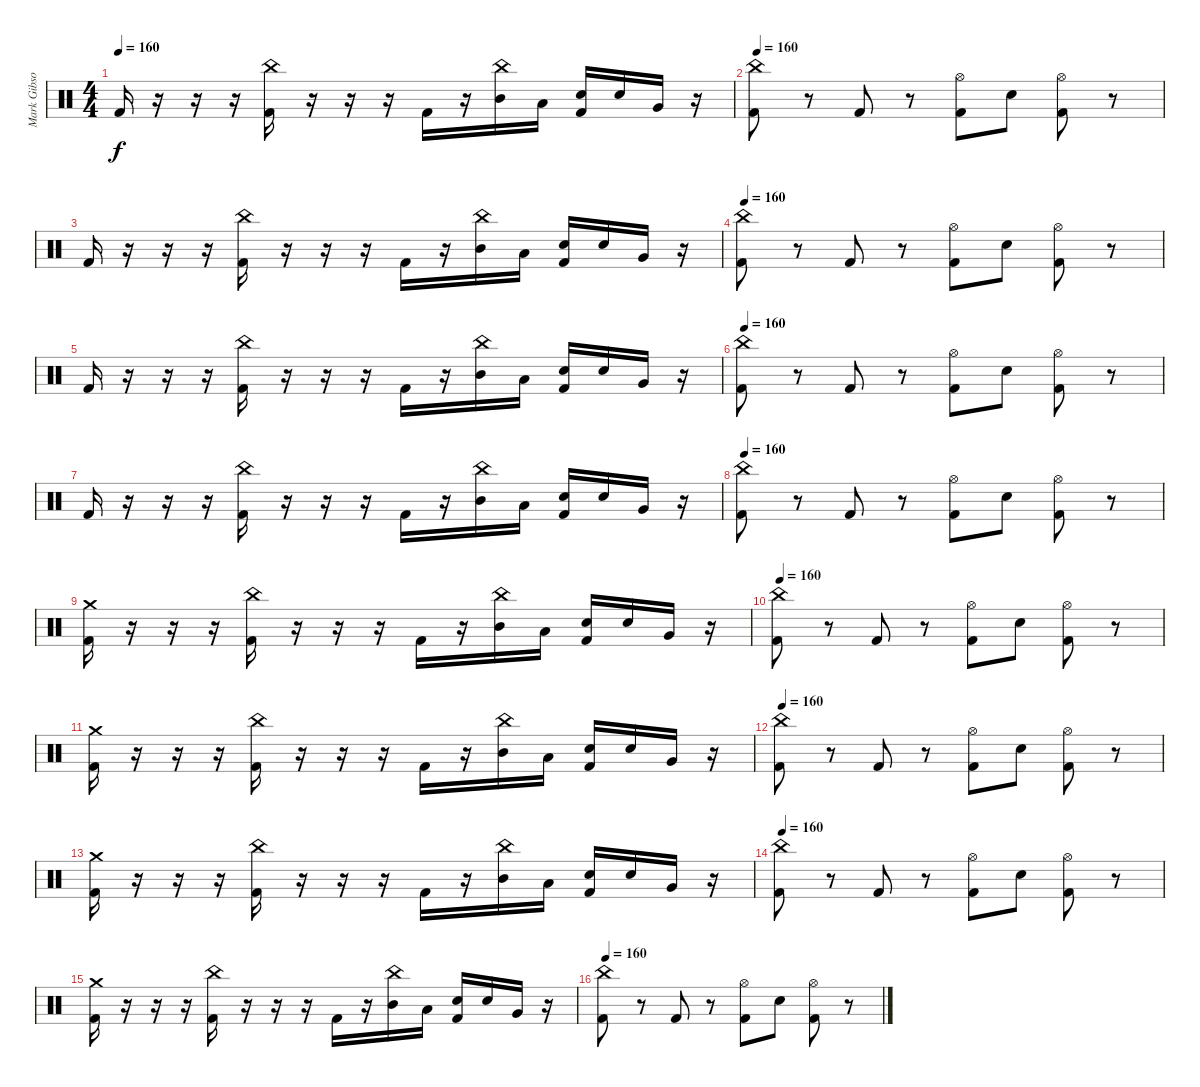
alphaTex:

\track ("Mark Gibson" "Mark Gibso") {instrument percussion}
\staff {score}
\articulation defaults
\ts (4 4)
\tempo 160
\clef neutral
\ks c "Kick (hit) 2".16{dy f}
r.16 r.16 r.16 ("China (hit)" "Kick (hit) 2").16 r.16 r.16 r.16 "Kick (hit) 2".16 r.16 ("China (hit)" "Mid Tom (hit)").16 "Low Tom (hit)".16 ("Electric Snare (hit)" "Kick (hit) 2").16 "Electric Snare (hit)".16 "Very Low Tom (hit)".16 r.16 |
\tempo 160
("China (hit)" "Kick (hit) 2").8 r.8 "Kick (hit) 2".8 r.8 ("Hi-Hat (open)" "Kick (hit) 2").8 "Electric Snare (hit)".8 ("Hi-Hat (open)" "Kick (hit) 2").8 r.8 |
"Kick (hit) 2".16 r.16 r.16 r.16 ("China (hit)" "Kick (hit) 2").16 r.16 r.16 r.16 "Kick (hit) 2".16 r.16 ("China (hit)" "Mid Tom (hit)").16 "Low Tom (hit)".16 ("Electric Snare (hit)" "Kick (hit) 2").16 "Electric Snare (hit)".16 "Very Low Tom (hit)".16 r.16 |
\tempo 160
("China (hit)" "Kick (hit) 2").8 r.8 "Kick (hit) 2".8 r.8 ("Hi-Hat (open)" "Kick (hit) 2").8 "Electric Snare (hit)".8 ("Hi-Hat (open)" "Kick (hit) 2").8 r.8 |
"Kick (hit) 2".16 r.16 r.16 r.16 ("China (hit)" "Kick (hit) 2").16 r.16 r.16 r.16 "Kick (hit) 2".16 r.16 ("China (hit)" "Mid Tom (hit)").16 "Low Tom (hit)".16 ("Electric Snare (hit)" "Kick (hit) 2").16 "Electric Snare (hit)".16 "Very Low Tom (hit)".16 r.16 |
\tempo 160
("China (hit)" "Kick (hit) 2").8 r.8 "Kick (hit) 2".8 r.8 ("Hi-Hat (open)" "Kick (hit) 2").8 "Electric Snare (hit)".8 ("Hi-Hat (open)" "Kick (hit) 2").8 r.8 |
"Kick (hit) 2".16 r.16 r.16 r.16 ("China (hit)" "Kick (hit) 2").16 r.16 r.16 r.16 "Kick (hit) 2".16 r.16 ("China (hit)" "Mid Tom (hit)").16 "Low Tom (hit)".16 ("Electric Snare (hit)" "Kick (hit) 2").16 "Electric Snare (hit)".16 "Very Low Tom (hit)".16 r.16 |
\tempo 160
("China (hit)" "Kick (hit) 2").8 r.8 "Kick (hit) 2".8 r.8 ("Hi-Hat (open)" "Kick (hit) 2").8 "Electric Snare (hit)".8 ("Hi-Hat (open)" "Kick (hit) 2").8 r.8 |
("Crash medium (hit)" "Kick (hit) 2").16 r.16 r.16 r.16 ("China (hit)" "Kick (hit) 2").16 r.16 r.16 r.16 "Kick (hit) 2".16 r.16 ("China (hit)" "Mid Tom (hit)").16 "Low Tom (hit)".16 ("Electric Snare (hit)" "Kick (hit) 2").16 "Electric Snare (hit)".16 "Very Low Tom (hit)".16 r.16 |
\tempo 160
("China (hit)" "Kick (hit) 2").8 r.8 "Kick (hit) 2".8 r.8 ("Hi-Hat (open)" "Kick (hit) 2").8 "Electric Snare (hit)".8 ("Hi-Hat (open)" "Kick (hit) 2").8 r.8 |
("Crash medium (hit)" "Kick (hit) 2").16 r.16 r.16 r.16 ("China (hit)" "Kick (hit) 2").16 r.16 r.16 r.16 "Kick (hit) 2".16 r.16 ("China (hit)" "Mid Tom (hit)").16 "Low Tom (hit)".16 ("Electric Snare (hit)" "Kick (hit) 2").16 "Electric Snare (hit)".16 "Very Low Tom (hit)".16 r.16 |
\tempo 160
("China (hit)" "Kick (hit) 2").8 r.8 "Kick (hit) 2".8 r.8 ("Hi-Hat (open)" "Kick (hit) 2").8 "Electric Snare (hit)".8 ("Hi-Hat (open)" "Kick (hit) 2").8 r.8 |
("Crash medium (hit)" "Kick (hit) 2").16 r.16 r.16 r.16 ("China (hit)" "Kick (hit) 2").16 r.16 r.16 r.16 "Kick (hit) 2".16 r.16 ("China (hit)" "Mid Tom (hit)").16 "Low Tom (hit)".16 ("Electric Snare (hit)" "Kick (hit) 2").16 "Electric Snare (hit)".16 "Very Low Tom (hit)".16 r.16 |
\tempo 160
("China (hit)" "Kick (hit) 2").8 r.8 "Kick (hit) 2".8 r.8 ("Hi-Hat (open)" "Kick (hit) 2").8 "Electric Snare (hit)".8 ("Hi-Hat (open)" "Kick (hit) 2").8 r.8 |
("Crash medium (hit)" "Kick (hit) 2").16 r.16 r.16 r.16 ("China (hit)" "Kick (hit) 2").16 r.16 r.16 r.16 "Kick (hit) 2".16 r.16 ("China (hit)" "Mid Tom (hit)").16 "Low Tom (hit)".16 ("Electric Snare (hit)" "Kick (hit) 2").16 "Electric Snare (hit)".16 "Very Low Tom (hit)".16 r.16 |
\tempo 160
("China (hit)" "Kick (hit) 2").8 r.8 "Kick (hit) 2".8 r.8 ("Hi-Hat (open)" "Kick (hit) 2").8 "Electric Snare (hit)".8 ("Hi-Hat (open)" "Kick (hit) 2").8 r.8
